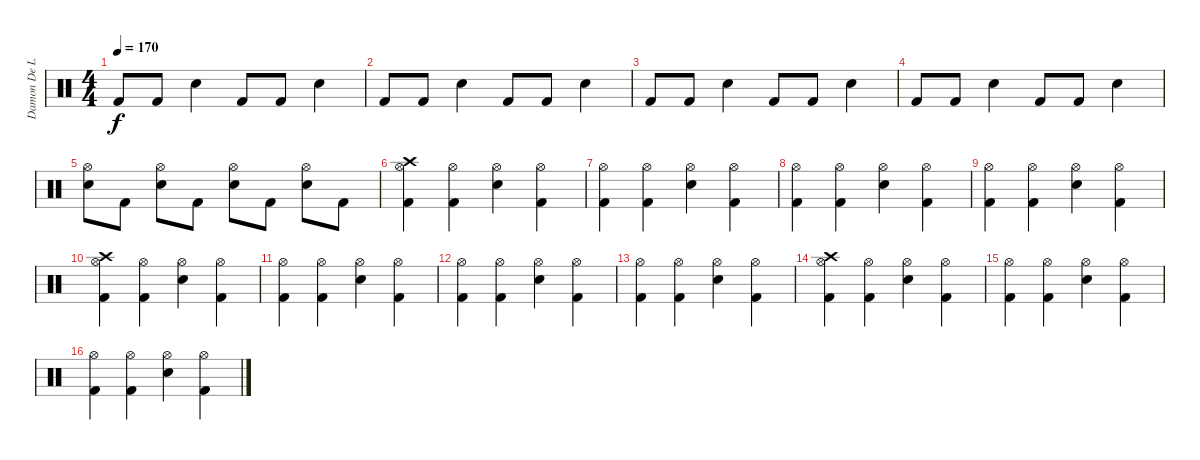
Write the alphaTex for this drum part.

\track ("Damon De La Paz" "Damon De L") {instrument percussion}
\staff {score}
\articulation defaults
\ts (4 4)
\tempo 170
\clef neutral
\ks c "Kick (hit) 2".8{dy f} "Kick (hit) 2".8 "Electric Snare (hit)".4 "Kick (hit) 2".8 "Kick (hit) 2".8 "Electric Snare (hit)".4
|
"Kick (hit) 2".8 "Kick (hit) 2".8 "Electric Snare (hit)".4 "Kick (hit) 2".8 "Kick (hit) 2".8 "Electric Snare (hit)".4 |
"Kick (hit) 2".8 "Kick (hit) 2".8 "Electric Snare (hit)".4 "Kick (hit) 2".8 "Kick (hit) 2".8 "Electric Snare (hit)".4 |
"Kick (hit) 2".8 "Kick (hit) 2".8 "Electric Snare (hit)".4 "Kick (hit) 2".8 "Kick (hit) 2".8 "Electric Snare (hit)".4 |
("Hi-Hat (open)" "Electric Snare (hit)").8 "Kick (hit) 2".8 ("Hi-Hat (open)" "Electric Snare (hit)").8 "Kick (hit) 2".8 ("Hi-Hat (open)" "Electric Snare (hit)").8 "Kick (hit) 2".8 ("Hi-Hat (open)" "Electric Snare (hit)").8 "Kick (hit) 2".8 |
("Crash high (hit)" "Hi-Hat (open)" "Kick (hit) 2").4 ("Hi-Hat (open)" "Kick (hit) 2").4 ("Hi-Hat (open)" "Electric Snare (hit)").4 ("Hi-Hat (open)" "Kick (hit) 2").4 |
("Hi-Hat (open)" "Kick (hit) 2").4 ("Hi-Hat (open)" "Kick (hit) 2").4 ("Hi-Hat (open)" "Electric Snare (hit)").4 ("Hi-Hat (open)" "Kick (hit) 2").4 |
("Hi-Hat (open)" "Kick (hit) 2").4 ("Hi-Hat (open)" "Kick (hit) 2").4 ("Hi-Hat (open)" "Electric Snare (hit)").4 ("Hi-Hat (open)" "Kick (hit) 2").4 |
("Hi-Hat (open)" "Kick (hit) 2").4 ("Hi-Hat (open)" "Kick (hit) 2").4 ("Hi-Hat (open)" "Electric Snare (hit)").4 ("Hi-Hat (open)" "Kick (hit) 2").4 |
("Crash high (hit)" "Hi-Hat (open)" "Kick (hit) 2").4 ("Hi-Hat (open)" "Kick (hit) 2").4 ("Hi-Hat (open)" "Electric Snare (hit)").4 ("Hi-Hat (open)" "Kick (hit) 2").4 |
("Hi-Hat (open)" "Kick (hit) 2").4 ("Hi-Hat (open)" "Kick (hit) 2").4 ("Hi-Hat (open)" "Electric Snare (hit)").4 ("Hi-Hat (open)" "Kick (hit) 2").4 |
("Hi-Hat (open)" "Kick (hit) 2").4 ("Hi-Hat (open)" "Kick (hit) 2").4 ("Hi-Hat (open)" "Electric Snare (hit)").4 ("Hi-Hat (open)" "Kick (hit) 2").4 |
("Hi-Hat (open)" "Kick (hit) 2").4 ("Hi-Hat (open)" "Kick (hit) 2").4 ("Hi-Hat (open)" "Electric Snare (hit)").4 ("Hi-Hat (open)" "Kick (hit) 2").4 |
("Crash high (hit)" "Hi-Hat (open)" "Kick (hit) 2").4 ("Hi-Hat (open)" "Kick (hit) 2").4 ("Hi-Hat (open)" "Electric Snare (hit)").4 ("Hi-Hat (open)" "Kick (hit) 2").4 |
("Hi-Hat (open)" "Kick (hit) 2").4 ("Hi-Hat (open)" "Kick (hit) 2").4 ("Hi-Hat (open)" "Electric Snare (hit)").4 ("Hi-Hat (open)" "Kick (hit) 2").4 |
("Hi-Hat (open)" "Kick (hit) 2").4 ("Hi-Hat (open)" "Kick (hit) 2").4 ("Hi-Hat (open)" "Electric Snare (hit)").4 ("Hi-Hat (open)" "Kick (hit) 2").4
